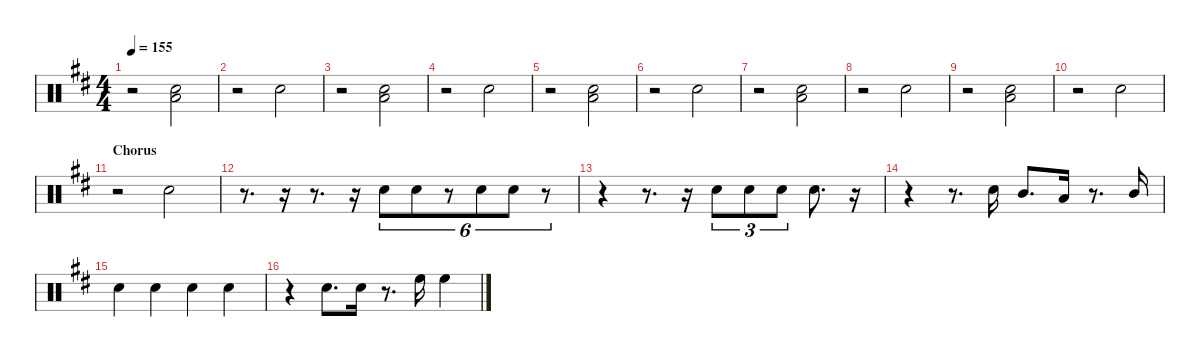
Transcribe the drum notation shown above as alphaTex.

\hideDynamics
\bracketExtendMode nobrackets
\singleTrackTrackNamePolicy hidden
\multiTrackTrackNamePolicy hidden
\otherSystemsTrackNameOrientation horizontal
\track ("Drums" "Drums") {instrument percussion}
\staff {score}
\articulation defaults
\ts (4 4)
\tempo 155
\clef neutral
\ks d
r.2{dy mf beam Down} ("Snare (hit) 2"{acc forcenatural} "Low Tom (hit)"{acc forcenatural}).2{beam Down} |
r.2{beam Down} "Snare (hit) 2"{acc forcenatural}.2{beam Down} |
r.2{beam Down} ("Snare (hit) 2"{acc forcenatural} "Low Tom (hit)"{acc forcenatural}).2{beam Down} |
r.2{beam Down} "Snare (hit) 2"{acc forcenatural}.2{beam Down} |
r.2{beam Down} ("Snare (hit) 2"{acc forcenatural} "Low Tom (hit)"{acc forcenatural}).2{beam Down} |
r.2{beam Down} "Snare (hit) 2"{acc forcenatural}.2{beam Down} |
r.2{beam Down} ("Snare (hit) 2"{acc forcenatural} "Low Tom (hit)"{acc forcenatural}).2{beam Down} |
r.2{beam Down} "Snare (hit) 2"{acc forcenatural}.2{beam Down} |
r.2{beam Down} ("Snare (hit) 2"{acc forcenatural} "Low Tom (hit)"{acc forcenatural}).2{beam Down} |
r.2{beam Down} "Snare (hit) 2"{acc forcenatural}.2{beam Down} |
\section ("" "Chorus")
r.2{beam Down} "Snare (hit) 2"{acc forcenatural}.2{beam Down} |
r.8{d beam Down} r.16{beam Down} r.8{d beam Down} r.16{beam Down} "Snare (hit) 2"{acc forcenatural}.8{tu (6 4) beam Down} "Snare (hit) 2"{acc forcenatural}.8{tu (6 4) dy p beam Down} r.8{tu (6 4) beam Down} "Snare (hit) 2"{acc forcenatural}.8{tu (6 4) dy mp beam Down} "Snare (hit) 2"{acc forcenatural}.8{tu (6 4) dy p beam Down} r.8{tu (6 4) beam Down} |
r.4{beam Down} r.8{d beam Down} r.16{beam Down} "Snare (hit) 2"{acc forcenatural}.8{tu (3 2) dy mf beam Down} "Snare (hit) 2"{acc forcenatural}.8{tu (3 2) dy mp beam Down} "Snare (hit) 2"{acc forcenatural}.8{tu (3 2) beam Down} "Snare (hit) 2"{acc forcenatural}.8{d dy mf beam Down} r.16{beam Down} |
r.4{beam Down} r.8{d beam Down} "Snare (hit) 2"{acc forcenatural}.16{dy mp beam Down} "Mid Tom (hit)"{acc forcenatural}.8{d dy p beam Up} "Low Tom (hit)"{acc forcenatural}.16{dy mp beam Up} r.8{d beam Up} "Mid Tom (hit)"{acc forcenatural}.16{dy p beam Up} |
"Snare (hit) 2"{acc forcenatural}.4{dy mp beam Down} "Snare (hit) 2"{acc forcenatural}.4{dy mf beam Down} "Snare (hit) 2"{acc forcenatural}.4{dy mp beam Down} "Snare (hit) 2"{acc forcenatural}.4{beam Down} |
r.4{beam Down} "Snare (hit) 2"{acc forcenatural}.8{d beam Down} "Snare (hit) 2"{acc forcenatural}.16{dy mf beam Down} r.8{d beam Down} "High Floor Tom (hit)"{acc forcenatural}.16{dy mp beam Down} "High Floor Tom (hit)"{acc forcenatural}.4{beam Down}
